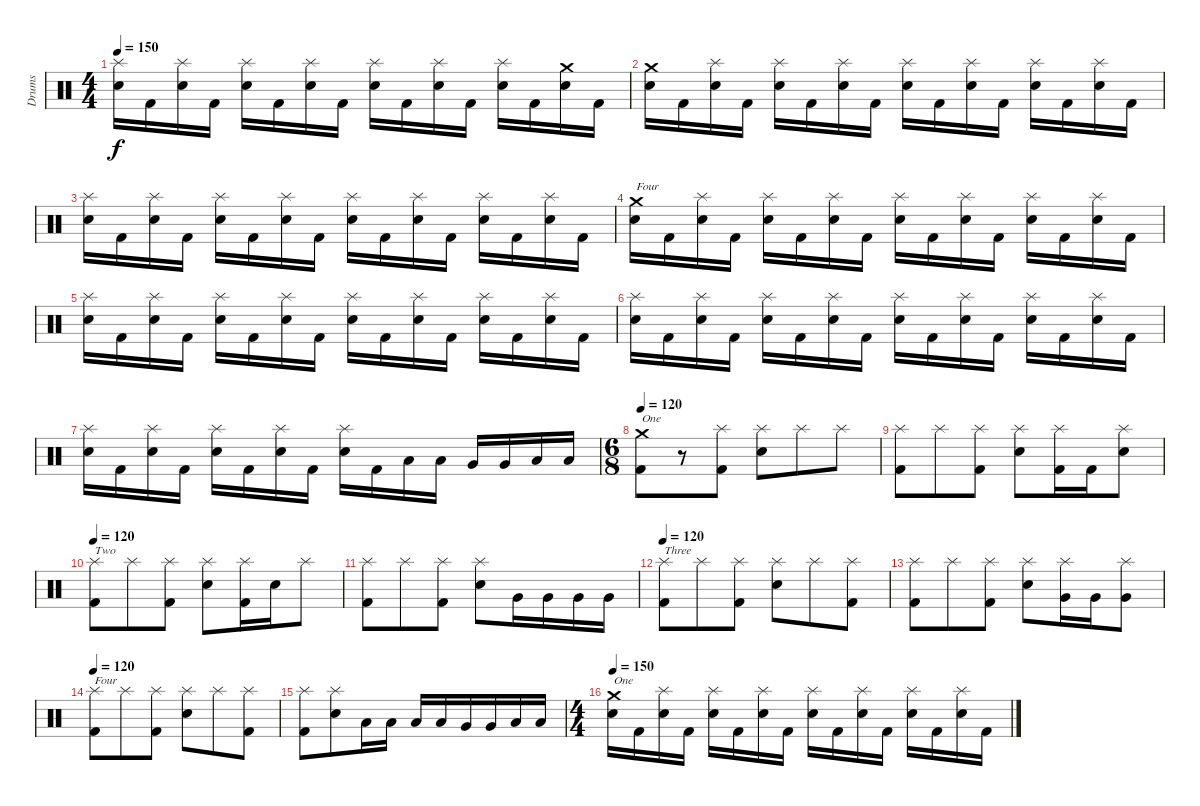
\track ("Drums" "Drums") {instrument percussion}
\staff {score}
\articulation defaults
\ts (4 4)
\tempo 150
\clef neutral
\ks c
("Splash (hit)" "Snare (hit) 2").16{dy f} "Kick (hit) 2".16 ("Splash (hit)" "Snare (hit) 2").16 "Kick (hit) 2".16 ("Splash (hit)" "Snare (hit) 2").16 "Kick (hit) 2".16 ("Splash (hit)" "Snare (hit) 2").16 "Kick (hit) 2".16 ("Splash (hit)" "Snare (hit) 2").16 "Kick (hit) 2".16 ("Splash (hit)" "Snare (hit) 2").16 "Kick (hit) 2".16 ("Splash (hit)" "Snare (hit) 2").16 "Kick (hit) 2".16 ("Crash medium (hit)" "Snare (hit) 2").16 "Kick (hit) 2".16 |
("Crash medium (hit)" "Snare (hit) 2").16 "Kick (hit) 2".16 ("Splash (hit)" "Snare (hit) 2").16 "Kick (hit) 2".16 ("Splash (hit)" "Snare (hit) 2").16 "Kick (hit) 2".16 ("Splash (hit)" "Snare (hit) 2").16 "Kick (hit) 2".16 ("Splash (hit)" "Snare (hit) 2").16 "Kick (hit) 2".16 ("Splash (hit)" "Snare (hit) 2").16 "Kick (hit) 2".16 ("Splash (hit)" "Snare (hit) 2").16 "Kick (hit) 2".16 ("Splash (hit)" "Snare (hit) 2").16 "Kick (hit) 2".16 |
("Splash (hit)" "Snare (hit) 2").16 "Kick (hit) 2".16 ("Splash (hit)" "Snare (hit) 2").16 "Kick (hit) 2".16 ("Splash (hit)" "Snare (hit) 2").16 "Kick (hit) 2".16 ("Splash (hit)" "Snare (hit) 2").16 "Kick (hit) 2".16 ("Splash (hit)" "Snare (hit) 2").16 "Kick (hit) 2".16 ("Splash (hit)" "Snare (hit) 2").16 "Kick (hit) 2".16 ("Splash (hit)" "Snare (hit) 2").16 "Kick (hit) 2".16 ("Splash (hit)" "Snare (hit) 2").16 "Kick (hit) 2".16 |
("Crash medium (hit)" "Snare (hit) 2").16{txt "Four"} "Kick (hit) 2".16 ("Splash (hit)" "Snare (hit) 2").16 "Kick (hit) 2".16 ("Splash (hit)" "Snare (hit) 2").16 "Kick (hit) 2".16 ("Splash (hit)" "Snare (hit) 2").16 "Kick (hit) 2".16 ("Splash (hit)" "Snare (hit) 2").16 "Kick (hit) 2".16 ("Splash (hit)" "Snare (hit) 2").16 "Kick (hit) 2".16 ("Splash (hit)" "Snare (hit) 2").16 "Kick (hit) 2".16 ("Splash (hit)" "Snare (hit) 2").16 "Kick (hit) 2".16 |
("Splash (hit)" "Snare (hit) 2").16 "Kick (hit) 2".16 ("Splash (hit)" "Snare (hit) 2").16 "Kick (hit) 2".16 ("Splash (hit)" "Snare (hit) 2").16 "Kick (hit) 2".16 ("Splash (hit)" "Snare (hit) 2").16 "Kick (hit) 2".16 ("Splash (hit)" "Snare (hit) 2").16 "Kick (hit) 2".16 ("Splash (hit)" "Snare (hit) 2").16 "Kick (hit) 2".16 ("Splash (hit)" "Snare (hit) 2").16 "Kick (hit) 2".16 ("Splash (hit)" "Snare (hit) 2").16 "Kick (hit) 2".16 |
("Splash (hit)" "Snare (hit) 2").16 "Kick (hit) 2".16 ("Splash (hit)" "Snare (hit) 2").16 "Kick (hit) 2".16 ("Splash (hit)" "Snare (hit) 2").16 "Kick (hit) 2".16 ("Splash (hit)" "Snare (hit) 2").16 "Kick (hit) 2".16 ("Splash (hit)" "Snare (hit) 2").16 "Kick (hit) 2".16 ("Splash (hit)" "Snare (hit) 2").16 "Kick (hit) 2".16 ("Splash (hit)" "Snare (hit) 2").16 "Kick (hit) 2".16 ("Splash (hit)" "Snare (hit) 2").16 "Kick (hit) 2".16 |
("Splash (hit)" "Snare (hit) 2").16 "Kick (hit) 2".16 ("Splash (hit)" "Snare (hit) 2").16 "Kick (hit) 2".16 ("Splash (hit)" "Snare (hit) 2").16 "Kick (hit) 2".16 ("Splash (hit)" "Snare (hit) 2").16 "Kick (hit) 2".16 ("Splash (hit)" "Snare (hit) 2").16 "Kick (hit) 2".16 "Low Tom (hit)".16 "Low Tom (hit)".16 "Very Low Tom (hit)".16 "Very Low Tom (hit)".16 "Low Floor Tom (hit)".16 "Low Floor Tom (hit)".16 |
\ts (6 8)
\tempo 120
("Crash medium (hit)" "Kick (hit) 2").8{txt "One"} r.8 ("Splash (hit)" "Kick (hit) 2").8 ("Splash (hit)" "Snare (hit) 2").8 "Splash (hit)".8 "Splash (hit)".8 |
("Splash (hit)" "Kick (hit) 2").8 "Splash (hit)".8 ("Splash (hit)" "Kick (hit) 2").8 ("Splash (hit)" "Snare (hit) 2").8 ("Splash (hit)" "Kick (hit) 2").16 "Kick (hit) 2".16 ("Splash (hit)" "Snare (hit) 2").8 |
\tempo 120
("Splash (hit)" "Kick (hit) 2").8{txt "Two"} "Splash (hit)".8 ("Splash (hit)" "Kick (hit) 2").8 ("Splash (hit)" "Snare (hit) 2").8 ("Splash (hit)" "Kick (hit) 2").16 "Snare (hit) 2".16 "Splash (hit)".8 |
("Splash (hit)" "Kick (hit) 2").8 "Splash (hit)".8 ("Splash (hit)" "Kick (hit) 2").8 ("Splash (hit)" "Snare (hit) 2").8 "Very Low Tom (hit)".16 "Very Low Tom (hit)".16 "Very Low Tom (hit)".16 "Very Low Tom (hit)".16 |
\tempo 120
("Splash (hit)" "Kick (hit) 2").8{txt "Three"} "Splash (hit)".8 ("Splash (hit)" "Kick (hit) 2").8 ("Splash (hit)" "Snare (hit) 2").8 "Splash (hit)".8 ("Splash (hit)" "Kick (hit) 2").8 |
("Splash (hit)" "Kick (hit) 2").8 "Splash (hit)".8 ("Splash (hit)" "Kick (hit) 2").8 ("Splash (hit)" "Snare (hit) 2").8 ("Splash (hit)" "Very Low Tom (hit)").16 "Very Low Tom (hit)".16 ("Splash (hit)" "Very Low Tom (hit)").8 |
\tempo 120
("Splash (hit)" "Kick (hit) 2").8{txt "Four"} "Splash (hit)".8 ("Splash (hit)" "Kick (hit) 2").8 ("Splash (hit)" "Snare (hit) 2").8 "Splash (hit)".8 ("Splash (hit)" "Kick (hit) 2").8 |
("Splash (hit)" "Kick (hit) 2").8 ("Splash (hit)" "Snare (hit) 2").8 "Low Tom (hit)".16 "Low Tom (hit)".16 "Low Tom (hit)".16 "Low Tom (hit)".16 "Very Low Tom (hit)".16 "Very Low Tom (hit)".16 "Low Floor Tom (hit)".16 "Low Floor Tom (hit)".16 |
\ts (4 4)
\tempo 150
("Crash medium (hit)" "Snare (hit) 2").16{txt "One"} "Kick (hit) 2".16 ("Splash (hit)" "Snare (hit) 2").16 "Kick (hit) 2".16 ("Splash (hit)" "Snare (hit) 2").16 "Kick (hit) 2".16 ("Splash (hit)" "Snare (hit) 2").16 "Kick (hit) 2".16 ("Splash (hit)" "Snare (hit) 2").16 "Kick (hit) 2".16 ("Splash (hit)" "Snare (hit) 2").16 "Kick (hit) 2".16 ("Splash (hit)" "Snare (hit) 2").16 "Kick (hit) 2".16 ("Splash (hit)" "Snare (hit) 2").16 "Kick (hit) 2".16
